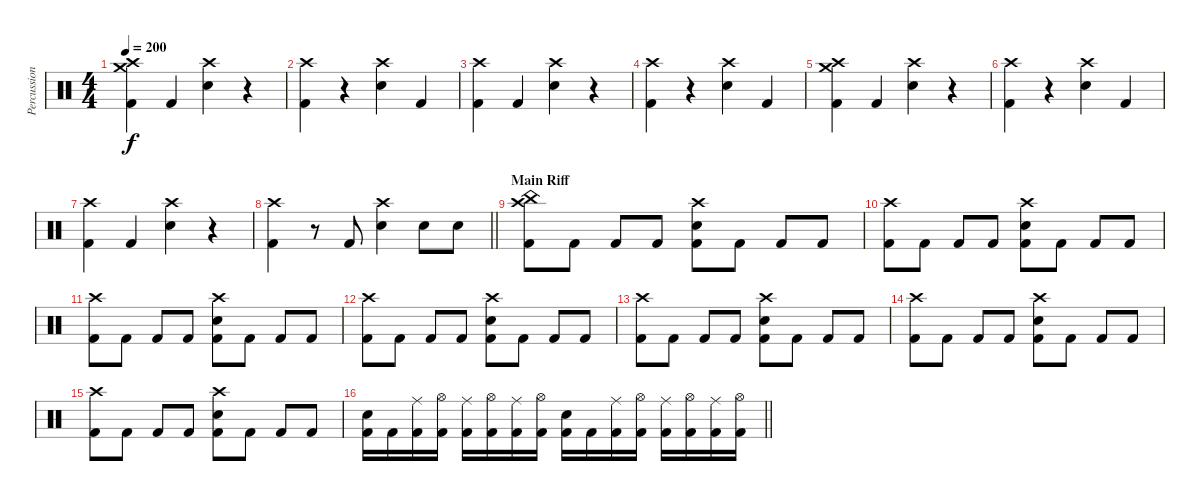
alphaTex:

\track ("Percussion" "Percussion") {instrument percussion}
\staff {score}
\articulation defaults
\ts (4 4)
\tempo 200
\clef neutral
\ks c
("Crash high (hit)" "Crash medium (hit)" "Kick (hit) 2").4{dy f} "Kick (hit) 2".4 ("Crash high (hit)" "Electric Snare (hit)").4 r.4 |
("Crash high (hit)" "Kick (hit) 2").4 r.4 ("Crash high (hit)" "Electric Snare (hit)").4 "Kick (hit) 2".4 |
("Crash high (hit)" "Kick (hit) 2").4 "Kick (hit) 2".4 ("Crash high (hit)" "Electric Snare (hit)").4 r.4 |
("Crash high (hit)" "Kick (hit) 2").4 r.4 ("Crash high (hit)" "Electric Snare (hit)").4 "Kick (hit) 2".4 |
("Crash high (hit)" "Crash medium (hit)" "Kick (hit) 2").4 "Kick (hit) 2".4 ("Crash high (hit)" "Electric Snare (hit)").4 r.4 |
("Crash high (hit)" "Kick (hit) 2").4 r.4 ("Crash high (hit)" "Electric Snare (hit)").4 "Kick (hit) 2".4 |
("Crash high (hit)" "Kick (hit) 2").4 "Kick (hit) 2".4 ("Crash high (hit)" "Electric Snare (hit)").4 r.4 |
\barLineRight lightlight
("Crash high (hit)" "Kick (hit) 2").4 r.8 "Kick (hit) 2".8 ("Crash high (hit)" "Electric Snare (hit)").4 "Electric Snare (hit)".8 "Electric Snare (hit)".8 |
\section ("" "Main Riff")
("Crash high (hit)" "China (hit)" "Kick (hit) 2").8 "Kick (hit) 2".8 "Kick (hit) 2".8 "Kick (hit) 2".8 ("Crash high (hit)" "Electric Snare (hit)" "Kick (hit) 2").8 "Kick (hit) 2".8 "Kick (hit) 2".8 "Kick (hit) 2".8 |
("Crash high (hit)" "Kick (hit) 2").8 "Kick (hit) 2".8 "Kick (hit) 2".8 "Kick (hit) 2".8 ("Crash high (hit)" "Electric Snare (hit)" "Kick (hit) 2").8 "Kick (hit) 2".8 "Kick (hit) 2".8 "Kick (hit) 2".8 |
("Crash high (hit)" "Kick (hit) 2").8 "Kick (hit) 2".8 "Kick (hit) 2".8 "Kick (hit) 2".8 ("Crash high (hit)" "Electric Snare (hit)" "Kick (hit) 2").8 "Kick (hit) 2".8 "Kick (hit) 2".8 "Kick (hit) 2".8 |
("Crash high (hit)" "Kick (hit) 2").8 "Kick (hit) 2".8 "Kick (hit) 2".8 "Kick (hit) 2".8 ("Crash high (hit)" "Electric Snare (hit)" "Kick (hit) 2").8 "Kick (hit) 2".8 "Kick (hit) 2".8 "Kick (hit) 2".8 |
("Crash high (hit)" "Kick (hit) 2").8 "Kick (hit) 2".8 "Kick (hit) 2".8 "Kick (hit) 2".8 ("Crash high (hit)" "Electric Snare (hit)" "Kick (hit) 2").8 "Kick (hit) 2".8 "Kick (hit) 2".8 "Kick (hit) 2".8 |
("Crash high (hit)" "Kick (hit) 2").8 "Kick (hit) 2".8 "Kick (hit) 2".8 "Kick (hit) 2".8 ("Crash high (hit)" "Electric Snare (hit)" "Kick (hit) 2").8 "Kick (hit) 2".8 "Kick (hit) 2".8 "Kick (hit) 2".8 |
("Crash high (hit)" "Kick (hit) 2").8 "Kick (hit) 2".8 "Kick (hit) 2".8 "Kick (hit) 2".8 ("Crash high (hit)" "Electric Snare (hit)" "Kick (hit) 2").8 "Kick (hit) 2".8 "Kick (hit) 2".8 "Kick (hit) 2".8 |
\barLineRight lightlight
("Electric Snare (hit)" "Kick (hit) 2").16 "Kick (hit) 2".16 ("Ride (middle)" "Kick (hit) 2").16 ("Hi-Hat (open)" "Kick (hit) 2").16 ("Ride (middle)" "Kick (hit) 2").16 ("Hi-Hat (open)" "Kick (hit) 2").16 ("Ride (middle)" "Kick (hit) 2").16 ("Hi-Hat (open)" "Kick (hit) 2").16 ("Electric Snare (hit)" "Kick (hit) 2").16 "Kick (hit) 2".16 ("Ride (middle)" "Kick (hit) 2").16 ("Hi-Hat (open)" "Kick (hit) 2").16 ("Ride (middle)" "Kick (hit) 2").16 ("Hi-Hat (open)" "Kick (hit) 2").16 ("Ride (middle)" "Kick (hit) 2").16 ("Hi-Hat (open)" "Kick (hit) 2").16
